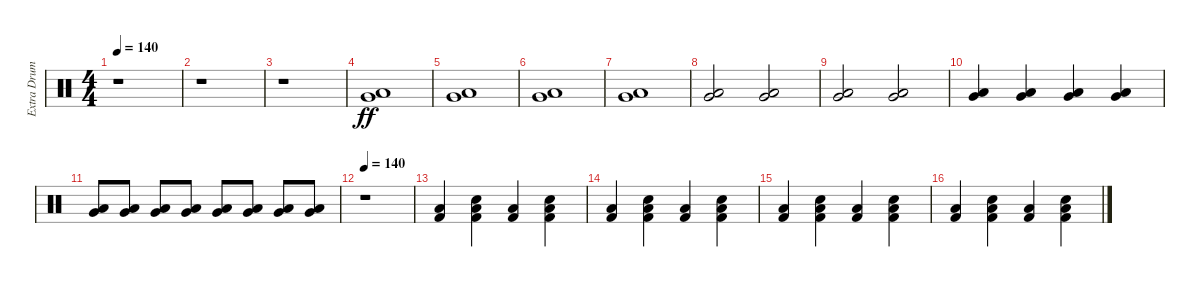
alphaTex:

\track ("Extra Drums" "Extra Drum") {instrument percussion}
\staff {score}
\articulation defaults
\ts (4 4)
\tempo 140
\clef neutral
\ks c
r.1{dy f} |
r.1 |
r.1 |
("Low Floor Tom (hit)" "Very Low Tom (hit)").1{dy ff} |
("Low Floor Tom (hit)" "Very Low Tom (hit)").1 |
("Low Floor Tom (hit)" "Very Low Tom (hit)").1 |
("Low Floor Tom (hit)" "Very Low Tom (hit)").1 |
("Low Floor Tom (hit)" "Very Low Tom (hit)").2 ("Low Floor Tom (hit)" "Very Low Tom (hit)").2 |
("Low Floor Tom (hit)" "Very Low Tom (hit)").2 ("Low Floor Tom (hit)" "Very Low Tom (hit)").2 |
("Low Floor Tom (hit)" "Very Low Tom (hit)").4 ("Low Floor Tom (hit)" "Very Low Tom (hit)").4 ("Low Floor Tom (hit)" "Very Low Tom (hit)").4 ("Low Floor Tom (hit)" "Very Low Tom (hit)").4 |
("Low Floor Tom (hit)" "Very Low Tom (hit)").8 ("Low Floor Tom (hit)" "Very Low Tom (hit)").8 ("Low Floor Tom (hit)" "Very Low Tom (hit)").8 ("Low Floor Tom (hit)" "Very Low Tom (hit)").8 ("Low Floor Tom (hit)" "Very Low Tom (hit)").8 ("Low Floor Tom (hit)" "Very Low Tom (hit)").8 ("Low Floor Tom (hit)" "Very Low Tom (hit)").8 ("Low Floor Tom (hit)" "Very Low Tom (hit)").8 |
\tempo 140
r.1 |
("Low Floor Tom (hit)" "Kick (hit) 2").4 ("Electric Snare (hit)" "Low Floor Tom (hit)" "Kick (hit) 2").4 ("Low Floor Tom (hit)" "Kick (hit) 2").4 ("Electric Snare (hit)" "Low Floor Tom (hit)" "Kick (hit) 2").4 |
("Low Floor Tom (hit)" "Kick (hit) 2").4 ("Electric Snare (hit)" "Low Floor Tom (hit)" "Kick (hit) 2").4 ("Low Floor Tom (hit)" "Kick (hit) 2").4 ("Electric Snare (hit)" "Low Floor Tom (hit)" "Kick (hit) 2").4 |
("Low Floor Tom (hit)" "Kick (hit) 2").4 ("Electric Snare (hit)" "Low Floor Tom (hit)" "Kick (hit) 2").4 ("Low Floor Tom (hit)" "Kick (hit) 2").4 ("Electric Snare (hit)" "Low Floor Tom (hit)" "Kick (hit) 2").4 |
("Low Floor Tom (hit)" "Kick (hit) 2").4 ("Electric Snare (hit)" "Low Floor Tom (hit)" "Kick (hit) 2").4 ("Low Floor Tom (hit)" "Kick (hit) 2").4 ("Electric Snare (hit)" "Low Floor Tom (hit)" "Kick (hit) 2").4
